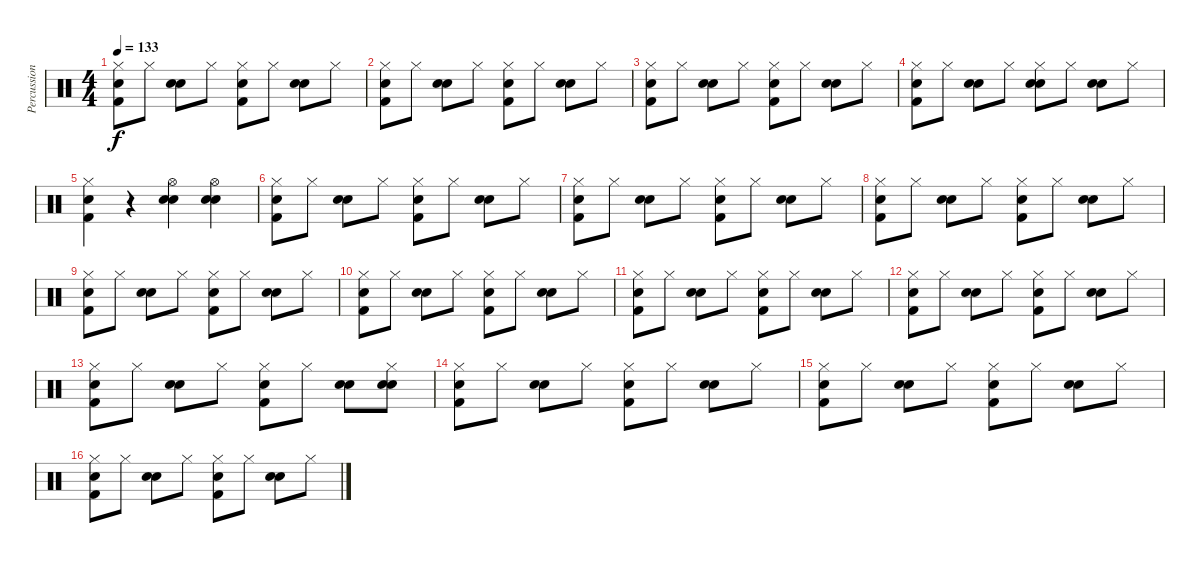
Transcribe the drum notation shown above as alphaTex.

\track ("Percussions" "Percussion") {instrument percussion}
\staff {score}
\articulation defaults
\ts (4 4)
\tempo 133
\clef neutral
\ks c
("Snare (hit) 2" "Kick (hit) 2" "Hi-Hat (closed)").8{dy f} "Hi-Hat (closed)".8 ("Electric Snare (hit)" "Electric Snare (hit)").8 "Hi-Hat (closed)".8 ("Snare (hit) 2" "Kick (hit) 2" "Hi-Hat (closed)").8 "Hi-Hat (closed)".8 ("Electric Snare (hit)" "Electric Snare (hit)").8 "Hi-Hat (closed)".8 |
("Snare (hit) 2" "Kick (hit) 2" "Hi-Hat (closed)").8 "Hi-Hat (closed)".8 ("Electric Snare (hit)" "Electric Snare (hit)").8 "Hi-Hat (closed)".8 ("Snare (hit) 2" "Kick (hit) 2" "Hi-Hat (closed)").8 "Hi-Hat (closed)".8 ("Electric Snare (hit)" "Electric Snare (hit)").8 "Hi-Hat (closed)".8 |
("Snare (hit) 2" "Kick (hit) 2" "Hi-Hat (closed)").8 "Hi-Hat (closed)".8 ("Electric Snare (hit)" "Electric Snare (hit)").8 "Hi-Hat (closed)".8 ("Snare (hit) 2" "Kick (hit) 2" "Hi-Hat (closed)").8 "Hi-Hat (closed)".8 ("Electric Snare (hit)" "Electric Snare (hit)").8 "Hi-Hat (closed)".8 |
("Snare (hit) 2" "Kick (hit) 2" "Hi-Hat (closed)").8 "Hi-Hat (closed)".8 ("Electric Snare (hit)" "Electric Snare (hit)").8 "Hi-Hat (closed)".8 ("Electric Snare (hit)" "Electric Snare (hit)" "Hi-Hat (closed)").8 "Hi-Hat (closed)".8 ("Electric Snare (hit)" "Electric Snare (hit)").8 "Hi-Hat (closed)".8 |
("Snare (hit) 2" "Kick (hit) 2" "Hi-Hat (closed)").4 r.4 ("Electric Snare (hit)" "Electric Snare (hit)" "Hi-Hat (open)").4 ("Snare (hit) 2" "Snare (hit) 2" "Hi-Hat (open)").4 |
("Snare (hit) 2" "Kick (hit) 2" "Hi-Hat (closed)").8 "Hi-Hat (closed)".8 ("Electric Snare (hit)" "Electric Snare (hit)").8 "Hi-Hat (closed)".8 ("Snare (hit) 2" "Kick (hit) 2" "Hi-Hat (closed)").8 "Hi-Hat (closed)".8 ("Electric Snare (hit)" "Electric Snare (hit)").8 "Hi-Hat (closed)".8 |
("Snare (hit) 2" "Kick (hit) 2" "Hi-Hat (closed)").8 "Hi-Hat (closed)".8 ("Electric Snare (hit)" "Electric Snare (hit)").8 "Hi-Hat (closed)".8 ("Snare (hit) 2" "Kick (hit) 2" "Hi-Hat (closed)").8 "Hi-Hat (closed)".8 ("Electric Snare (hit)" "Electric Snare (hit)").8 "Hi-Hat (closed)".8 |
("Snare (hit) 2" "Kick (hit) 2" "Hi-Hat (closed)").8 "Hi-Hat (closed)".8 ("Electric Snare (hit)" "Electric Snare (hit)").8 "Hi-Hat (closed)".8 ("Snare (hit) 2" "Kick (hit) 2" "Hi-Hat (closed)").8 "Hi-Hat (closed)".8 ("Electric Snare (hit)" "Electric Snare (hit)").8 "Hi-Hat (closed)".8 |
("Snare (hit) 2" "Kick (hit) 2" "Hi-Hat (closed)").8 "Hi-Hat (closed)".8 ("Electric Snare (hit)" "Electric Snare (hit)").8 "Hi-Hat (closed)".8 ("Snare (hit) 2" "Kick (hit) 2" "Hi-Hat (closed)").8 "Hi-Hat (closed)".8 ("Electric Snare (hit)" "Electric Snare (hit)").8 "Hi-Hat (closed)".8 |
("Snare (hit) 2" "Kick (hit) 2" "Hi-Hat (closed)").8 "Hi-Hat (closed)".8 ("Electric Snare (hit)" "Electric Snare (hit)").8 "Hi-Hat (closed)".8 ("Snare (hit) 2" "Kick (hit) 2" "Hi-Hat (closed)").8 "Hi-Hat (closed)".8 ("Electric Snare (hit)" "Electric Snare (hit)").8 "Hi-Hat (closed)".8 |
("Snare (hit) 2" "Kick (hit) 2" "Hi-Hat (closed)").8 "Hi-Hat (closed)".8 ("Electric Snare (hit)" "Electric Snare (hit)").8 "Hi-Hat (closed)".8 ("Snare (hit) 2" "Kick (hit) 2" "Hi-Hat (closed)").8 "Hi-Hat (closed)".8 ("Electric Snare (hit)" "Electric Snare (hit)").8 "Hi-Hat (closed)".8 |
("Snare (hit) 2" "Kick (hit) 2" "Hi-Hat (closed)").8 "Hi-Hat (closed)".8 ("Electric Snare (hit)" "Electric Snare (hit)").8 "Hi-Hat (closed)".8 ("Snare (hit) 2" "Kick (hit) 2" "Hi-Hat (closed)").8 "Hi-Hat (closed)".8 ("Electric Snare (hit)" "Electric Snare (hit)").8 "Hi-Hat (closed)".8 |
("Snare (hit) 2" "Kick (hit) 2" "Hi-Hat (closed)").8 "Hi-Hat (closed)".8 ("Electric Snare (hit)" "Electric Snare (hit)").8 "Hi-Hat (closed)".8 ("Snare (hit) 2" "Kick (hit) 2" "Hi-Hat (closed)").8 "Hi-Hat (closed)".8 ("Electric Snare (hit)" "Electric Snare (hit)").8 ("Electric Snare (hit)" "Electric Snare (hit)" "Hi-Hat (closed)").8 |
("Snare (hit) 2" "Kick (hit) 2" "Hi-Hat (closed)").8 "Hi-Hat (closed)".8 ("Electric Snare (hit)" "Electric Snare (hit)").8 "Hi-Hat (closed)".8 ("Snare (hit) 2" "Kick (hit) 2" "Hi-Hat (closed)").8 "Hi-Hat (closed)".8 ("Electric Snare (hit)" "Electric Snare (hit)").8 "Hi-Hat (closed)".8 |
("Snare (hit) 2" "Kick (hit) 2" "Hi-Hat (closed)").8 "Hi-Hat (closed)".8 ("Electric Snare (hit)" "Electric Snare (hit)").8 "Hi-Hat (closed)".8 ("Snare (hit) 2" "Kick (hit) 2" "Hi-Hat (closed)").8 "Hi-Hat (closed)".8 ("Electric Snare (hit)" "Electric Snare (hit)").8 "Hi-Hat (closed)".8 |
("Snare (hit) 2" "Kick (hit) 2" "Hi-Hat (closed)").8 "Hi-Hat (closed)".8 ("Electric Snare (hit)" "Electric Snare (hit)").8 "Hi-Hat (closed)".8 ("Snare (hit) 2" "Kick (hit) 2" "Hi-Hat (closed)").8 "Hi-Hat (closed)".8 ("Electric Snare (hit)" "Electric Snare (hit)").8 "Hi-Hat (closed)".8
